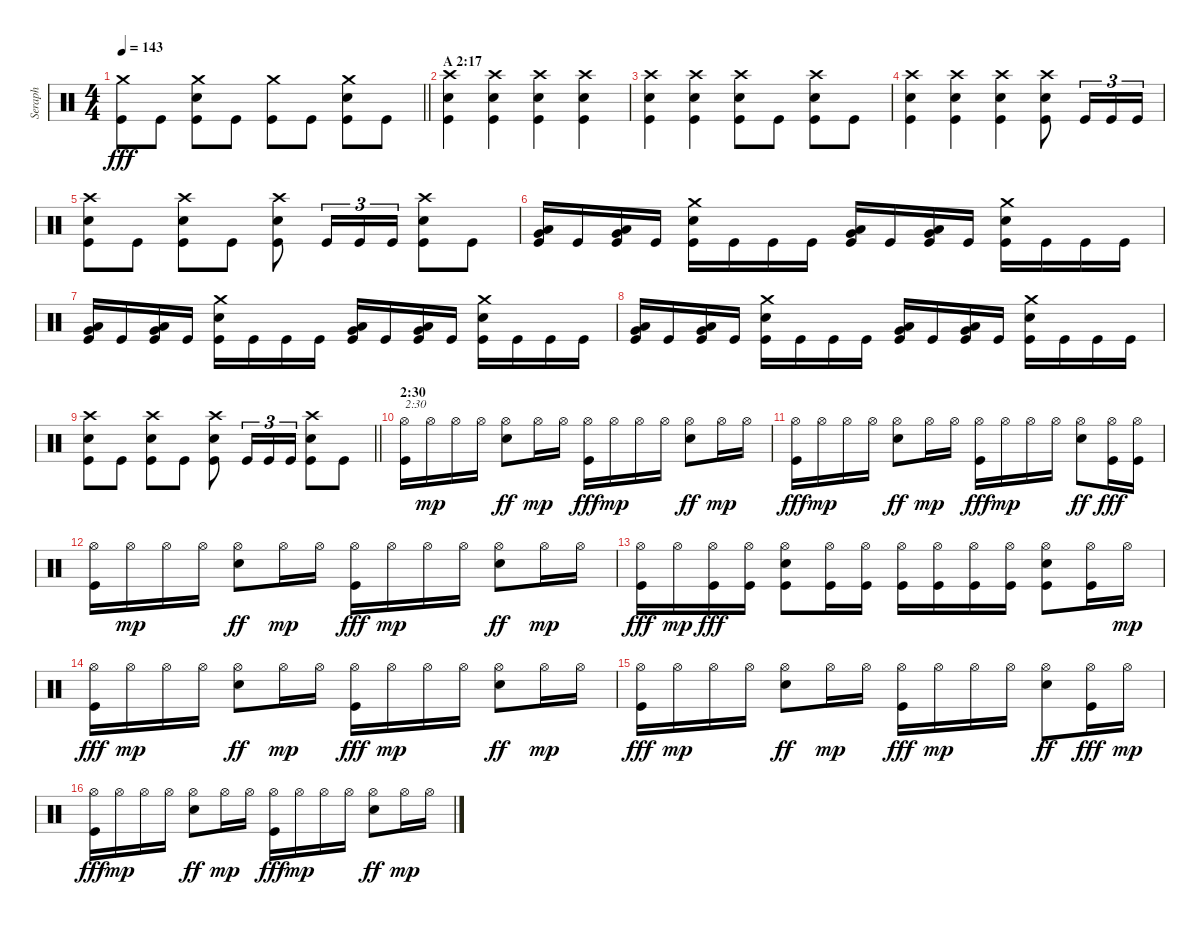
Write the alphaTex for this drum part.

\track ("Seraph" "Seraph") {instrument percussion}
\staff {score}
\articulation defaults
\ts (4 4)
\tempo 143
\clef neutral
\barLineRight lightlight
\ks c
("Crash medium (hit)" "Kick (hit)").8{dy fff} "Kick (hit)".8 ("Crash medium (hit)" "Electric Snare (hit)" "Kick (hit)").8 "Kick (hit)".8 ("Crash medium (hit)" "Kick (hit)").8 "Kick (hit)".8 ("Crash medium (hit)" "Electric Snare (hit)" "Kick (hit)").8 "Kick (hit)".8 |
\section ("" "A 2:17")
("Crash high (hit)" "Electric Snare (hit)" "Kick (hit)").4 ("Crash high (hit)" "Electric Snare (hit)" "Kick (hit)").4 ("Crash high (hit)" "Electric Snare (hit)" "Kick (hit)").4 ("Crash high (hit)" "Electric Snare (hit)" "Kick (hit)").4 |
("Crash high (hit)" "Electric Snare (hit)" "Kick (hit)").4 ("Crash high (hit)" "Electric Snare (hit)" "Kick (hit)").4 ("Crash high (hit)" "Electric Snare (hit)" "Kick (hit)").8 "Kick (hit)".8 ("Crash high (hit)" "Electric Snare (hit)" "Kick (hit)").8 "Kick (hit)".8 |
("Crash high (hit)" "Electric Snare (hit)" "Kick (hit)").4 ("Crash high (hit)" "Electric Snare (hit)" "Kick (hit)").4 ("Crash high (hit)" "Electric Snare (hit)" "Kick (hit)").4 ("Crash high (hit)" "Electric Snare (hit)" "Kick (hit)").8 "Kick (hit)".16{tu (3 2)} "Kick (hit)".16{tu (3 2)} "Kick (hit)".16{tu (3 2)} |
("Crash high (hit)" "Electric Snare (hit)" "Kick (hit)").8 "Kick (hit)".8 ("Crash high (hit)" "Electric Snare (hit)" "Kick (hit)").8 "Kick (hit)".8 ("Crash high (hit)" "Electric Snare (hit)" "Kick (hit)").8 "Kick (hit)".16{tu (3 2)} "Kick (hit)".16{tu (3 2)} "Kick (hit)".16{tu (3 2)} ("Crash high (hit)" "Electric Snare (hit)" "Kick (hit)").8 "Kick (hit)".8 |
("Very Low Tom (hit)" "Low Floor Tom (hit)" "Kick (hit)").16 "Kick (hit)".16 ("Very Low Tom (hit)" "Low Tom (hit)" "Kick (hit)").16 "Kick (hit)".16 ("Crash medium (hit)" "Electric Snare (hit)" "Kick (hit)").16 "Kick (hit)".16 "Kick (hit)".16 "Kick (hit)".16 ("Very Low Tom (hit)" "Low Floor Tom (hit)" "Kick (hit)").16 "Kick (hit)".16 ("Very Low Tom (hit)" "Low Tom (hit)" "Kick (hit)").16 "Kick (hit)".16 ("Crash medium (hit)" "Electric Snare (hit)" "Kick (hit)").16 "Kick (hit)".16 "Kick (hit)".16 "Kick (hit)".16 |
("Very Low Tom (hit)" "Low Tom (hit)" "Kick (hit)").16 "Kick (hit)".16 ("Very Low Tom (hit)" "Low Floor Tom (hit)" "Kick (hit)").16 "Kick (hit)".16 ("Crash medium (hit)" "Electric Snare (hit)" "Kick (hit)").16 "Kick (hit)".16 "Kick (hit)".16 "Kick (hit)".16 ("Very Low Tom (hit)" "Low Tom (hit)" "Kick (hit)").16 "Kick (hit)".16 ("Very Low Tom (hit)" "Low Floor Tom (hit)" "Kick (hit)").16 "Kick (hit)".16 ("Crash medium (hit)" "Electric Snare (hit)" "Kick (hit)").16 "Kick (hit)".16 "Kick (hit)".16 "Kick (hit)".16 |
("Very Low Tom (hit)" "Low Floor Tom (hit)" "Kick (hit)").16 "Kick (hit)".16 ("Very Low Tom (hit)" "Low Tom (hit)" "Kick (hit)").16 "Kick (hit)".16 ("Crash medium (hit)" "Electric Snare (hit)" "Kick (hit)").16 "Kick (hit)".16 "Kick (hit)".16 "Kick (hit)".16 ("Very Low Tom (hit)" "Low Floor Tom (hit)" "Kick (hit)").16 "Kick (hit)".16 ("Very Low Tom (hit)" "Low Tom (hit)" "Kick (hit)").16 "Kick (hit)".16 ("Crash medium (hit)" "Electric Snare (hit)" "Kick (hit)").16 "Kick (hit)".16 "Kick (hit)".16 "Kick (hit)".16 |
\barLineRight lightlight
("Crash high (hit)" "Electric Snare (hit)" "Kick (hit)").8 "Kick (hit)".8 ("Crash high (hit)" "Electric Snare (hit)" "Kick (hit)").8 "Kick (hit)".8 ("Crash high (hit)" "Electric Snare (hit)" "Kick (hit)").8 "Kick (hit)".16{tu (3 2)} "Kick (hit)".16{tu (3 2)} "Kick (hit)".16{tu (3 2)} ("Crash high (hit)" "Electric Snare (hit)" "Kick (hit)").8 "Kick (hit)".8 |
\section ("" "2:30")
("Hi-Hat (open)" "Kick (hit)").16{txt "2:30"} "Hi-Hat (open)".16{dy mp} "Hi-Hat (open)".16 "Hi-Hat (open)".16 ("Hi-Hat (open)" "Electric Snare (hit)").8{dy ff} "Hi-Hat (open)".16{dy mp} "Hi-Hat (open)".16 ("Hi-Hat (open)" "Kick (hit)").16{dy fff} "Hi-Hat (open)".16{dy mp} "Hi-Hat (open)".16 "Hi-Hat (open)".16 ("Hi-Hat (open)" "Electric Snare (hit)").8{dy ff} "Hi-Hat (open)".16{dy mp} "Hi-Hat (open)".16 |
("Hi-Hat (open)" "Kick (hit)").16{dy fff} "Hi-Hat (open)".16{dy mp} "Hi-Hat (open)".16 "Hi-Hat (open)".16 ("Hi-Hat (open)" "Electric Snare (hit)").8{dy ff} "Hi-Hat (open)".16{dy mp} "Hi-Hat (open)".16 ("Hi-Hat (open)" "Kick (hit)").16{dy fff} "Hi-Hat (open)".16{dy mp} "Hi-Hat (open)".16 "Hi-Hat (open)".16 ("Hi-Hat (open)" "Electric Snare (hit)").8{dy ff} ("Hi-Hat (open)" "Kick (hit)").16{dy fff} ("Hi-Hat (open)" "Kick (hit)").16 |
("Hi-Hat (open)" "Kick (hit)").16 "Hi-Hat (open)".16{dy mp} "Hi-Hat (open)".16 "Hi-Hat (open)".16 ("Hi-Hat (open)" "Electric Snare (hit)").8{dy ff} "Hi-Hat (open)".16{dy mp} "Hi-Hat (open)".16 ("Hi-Hat (open)" "Kick (hit)").16{dy fff} "Hi-Hat (open)".16{dy mp} "Hi-Hat (open)".16 "Hi-Hat (open)".16 ("Hi-Hat (open)" "Electric Snare (hit)").8{dy ff} "Hi-Hat (open)".16{dy mp} "Hi-Hat (open)".16 |
("Hi-Hat (open)" "Kick (hit)").16{dy fff} "Hi-Hat (open)".16{dy mp} ("Hi-Hat (open)" "Kick (hit)").16{dy fff} ("Hi-Hat (open)" "Kick (hit)").16 ("Hi-Hat (open)" "Electric Snare (hit)" "Kick (hit)").8 ("Hi-Hat (open)" "Kick (hit)").16 ("Hi-Hat (open)" "Kick (hit)").16 ("Hi-Hat (open)" "Kick (hit)").16 ("Hi-Hat (open)" "Kick (hit)").16 ("Hi-Hat (open)" "Kick (hit)").16 ("Hi-Hat (open)" "Kick (hit)").16 ("Hi-Hat (open)" "Electric Snare (hit)" "Kick (hit)").8 ("Hi-Hat (open)" "Kick (hit)").16 "Hi-Hat (open)".16{dy mp} |
("Hi-Hat (open)" "Kick (hit)").16{dy fff} "Hi-Hat (open)".16{dy mp} "Hi-Hat (open)".16 "Hi-Hat (open)".16 ("Hi-Hat (open)" "Electric Snare (hit)").8{dy ff} "Hi-Hat (open)".16{dy mp} "Hi-Hat (open)".16 ("Hi-Hat (open)" "Kick (hit)").16{dy fff} "Hi-Hat (open)".16{dy mp} "Hi-Hat (open)".16 "Hi-Hat (open)".16 ("Hi-Hat (open)" "Electric Snare (hit)").8{dy ff} "Hi-Hat (open)".16{dy mp} "Hi-Hat (open)".16 |
("Hi-Hat (open)" "Kick (hit)").16{dy fff} "Hi-Hat (open)".16{dy mp} "Hi-Hat (open)".16 "Hi-Hat (open)".16 ("Hi-Hat (open)" "Electric Snare (hit)").8{dy ff} "Hi-Hat (open)".16{dy mp} "Hi-Hat (open)".16 ("Hi-Hat (open)" "Kick (hit)").16{dy fff} "Hi-Hat (open)".16{dy mp} "Hi-Hat (open)".16 "Hi-Hat (open)".16 ("Hi-Hat (open)" "Electric Snare (hit)").8{dy ff} ("Hi-Hat (open)" "Kick (hit)").16{dy fff} "Hi-Hat (open)".16{dy mp} |
("Hi-Hat (open)" "Kick (hit)").16{dy fff} "Hi-Hat (open)".16{dy mp} "Hi-Hat (open)".16 "Hi-Hat (open)".16 ("Hi-Hat (open)" "Electric Snare (hit)").8{dy ff} "Hi-Hat (open)".16{dy mp} "Hi-Hat (open)".16 ("Hi-Hat (open)" "Kick (hit)").16{dy fff} "Hi-Hat (open)".16{dy mp} "Hi-Hat (open)".16 "Hi-Hat (open)".16 ("Hi-Hat (open)" "Electric Snare (hit)").8{dy ff} "Hi-Hat (open)".16{dy mp} "Hi-Hat (open)".16
